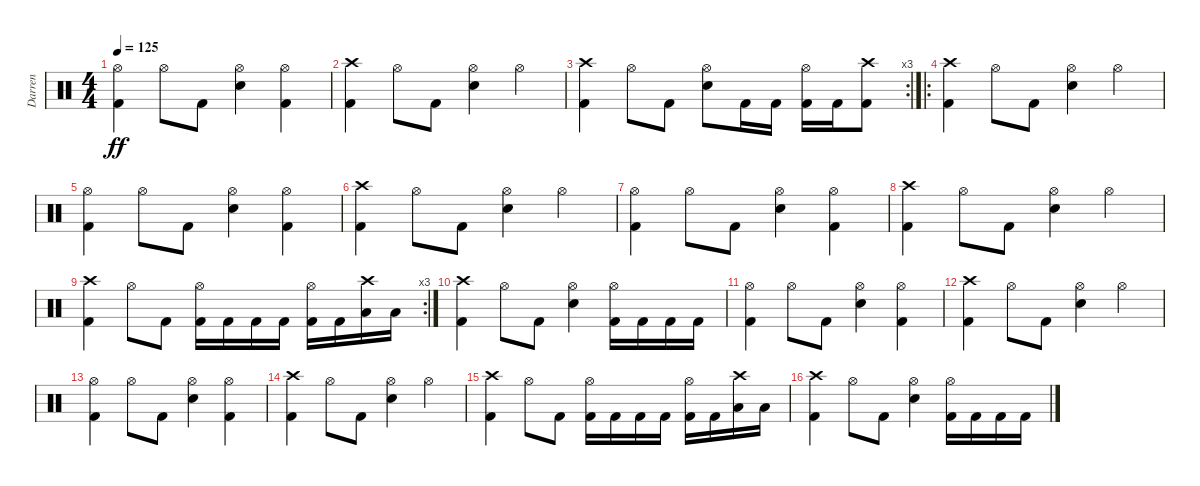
\track ("Darren" "Darren") {instrument percussion}
\staff {score}
\articulation defaults
\ts (4 4)
\tempo 125
\clef neutral
\ks c
("Hi-Hat (open)" "Kick (hit) 2").4{dy ff} "Hi-Hat (open)".8 "Kick (hit) 2".8 ("Hi-Hat (open)" "Electric Snare (hit)").4 ("Hi-Hat (open)" "Kick (hit) 2").4 |
("Crash high (hit)" "Kick (hit) 2").4 "Hi-Hat (open)".8 "Kick (hit) 2".8 ("Hi-Hat (open)" "Electric Snare (hit)").4 "Hi-Hat (open)".4 |
\rc 3
("Crash high (hit)" "Kick (hit) 2").4 "Hi-Hat (open)".8 "Kick (hit) 2".8 ("Hi-Hat (open)" "Electric Snare (hit)").8 "Kick (hit) 2".16 "Kick (hit) 2".16 ("Hi-Hat (open)" "Kick (hit) 2").16 "Kick (hit) 2".16 ("Crash high (hit)" "Kick (hit) 2").8 |
\ro
("Crash high (hit)" "Kick (hit) 2").4 "Hi-Hat (open)".8 "Kick (hit) 2".8 ("Hi-Hat (open)" "Electric Snare (hit)").4 "Hi-Hat (open)".4 |
("Hi-Hat (open)" "Kick (hit) 2").4 "Hi-Hat (open)".8 "Kick (hit) 2".8 ("Hi-Hat (open)" "Electric Snare (hit)").4 ("Hi-Hat (open)" "Kick (hit) 2").4 |
("Crash high (hit)" "Kick (hit) 2").4 "Hi-Hat (open)".8 "Kick (hit) 2".8 ("Hi-Hat (open)" "Electric Snare (hit)").4 "Hi-Hat (open)".4 |
("Hi-Hat (open)" "Kick (hit) 2").4 "Hi-Hat (open)".8 "Kick (hit) 2".8 ("Hi-Hat (open)" "Electric Snare (hit)").4 ("Hi-Hat (open)" "Kick (hit) 2").4 |
("Crash high (hit)" "Kick (hit) 2").4 "Hi-Hat (open)".8 "Kick (hit) 2".8 ("Hi-Hat (open)" "Electric Snare (hit)").4 "Hi-Hat (open)".4 |
\rc 3
("Crash high (hit)" "Kick (hit) 2").4 "Hi-Hat (open)".8 "Kick (hit) 2".8 ("Hi-Hat (open)" "Kick (hit) 2").16 "Kick (hit) 2".16 "Kick (hit) 2".16 "Kick (hit) 2".16 ("Hi-Hat (open)" "Kick (hit) 2").16 "Kick (hit) 2".16 ("Crash high (hit)" "Low Floor Tom (hit)").16 "Low Floor Tom (hit)".16 |
("Crash high (hit)" "Kick (hit) 2").4 "Hi-Hat (open)".8 "Kick (hit) 2".8 ("Hi-Hat (open)" "Electric Snare (hit)").4 ("Hi-Hat (open)" "Kick (hit) 2").16 "Kick (hit) 2".16 "Kick (hit) 2".16 "Kick (hit) 2".16 |
("Hi-Hat (open)" "Kick (hit) 2").4 "Hi-Hat (open)".8 "Kick (hit) 2".8 ("Hi-Hat (open)" "Electric Snare (hit)").4 ("Hi-Hat (open)" "Kick (hit) 2").4 |
("Crash high (hit)" "Kick (hit) 2").4 "Hi-Hat (open)".8 "Kick (hit) 2".8 ("Hi-Hat (open)" "Electric Snare (hit)").4 "Hi-Hat (open)".4 |
("Hi-Hat (open)" "Kick (hit) 2").4 "Hi-Hat (open)".8 "Kick (hit) 2".8 ("Hi-Hat (open)" "Electric Snare (hit)").4 ("Hi-Hat (open)" "Kick (hit) 2").4 |
("Crash high (hit)" "Kick (hit) 2").4 "Hi-Hat (open)".8 "Kick (hit) 2".8 ("Hi-Hat (open)" "Electric Snare (hit)").4 "Hi-Hat (open)".4 |
("Crash high (hit)" "Kick (hit) 2").4 "Hi-Hat (open)".8 "Kick (hit) 2".8 ("Hi-Hat (open)" "Kick (hit) 2").16 "Kick (hit) 2".16 "Kick (hit) 2".16 "Kick (hit) 2".16 ("Hi-Hat (open)" "Kick (hit) 2").16 "Kick (hit) 2".16 ("Crash high (hit)" "Low Floor Tom (hit)").16 "Low Floor Tom (hit)".16 |
("Crash high (hit)" "Kick (hit) 2").4 "Hi-Hat (open)".8 "Kick (hit) 2".8 ("Hi-Hat (open)" "Electric Snare (hit)").4 ("Hi-Hat (open)" "Kick (hit) 2").16 "Kick (hit) 2".16 "Kick (hit) 2".16 "Kick (hit) 2".16
